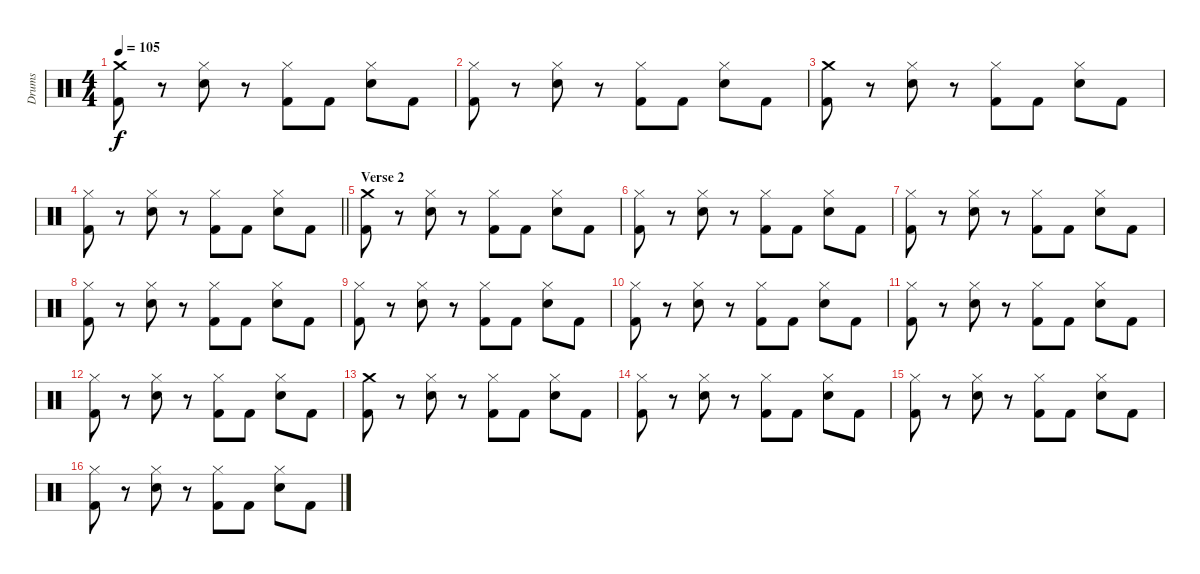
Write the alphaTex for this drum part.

\track ("Drums" "Drums") {instrument percussion}
\staff {score}
\articulation defaults
\ts (4 4)
\tempo 105
\clef neutral
\ks c
("Crash medium (hit)" "Kick (hit) 2").8{dy f} r.8 ("Hi-Hat (closed)" "Snare (hit) 2").8 r.8 ("Hi-Hat (closed)" "Kick (hit) 2").8 "Kick (hit) 2".8 ("Hi-Hat (closed)" "Snare (hit) 2").8 "Kick (hit) 2".8 |
("Hi-Hat (closed)" "Kick (hit) 2").8 r.8 ("Hi-Hat (closed)" "Snare (hit) 2").8 r.8 ("Hi-Hat (closed)" "Kick (hit) 2").8 "Kick (hit) 2".8 ("Hi-Hat (closed)" "Snare (hit) 2").8 "Kick (hit) 2".8 |
("Crash medium (hit)" "Kick (hit) 2").8 r.8 ("Hi-Hat (closed)" "Snare (hit) 2").8 r.8 ("Hi-Hat (closed)" "Kick (hit) 2").8 "Kick (hit) 2".8 ("Hi-Hat (closed)" "Snare (hit) 2").8 "Kick (hit) 2".8 |
\barLineRight lightlight
("Hi-Hat (closed)" "Kick (hit) 2").8 r.8 ("Hi-Hat (closed)" "Snare (hit) 2").8 r.8 ("Hi-Hat (closed)" "Kick (hit) 2").8 "Kick (hit) 2".8 ("Hi-Hat (closed)" "Snare (hit) 2").8 "Kick (hit) 2".8 |
\section ("" "Verse 2")
("Crash medium (hit)" "Kick (hit) 2").8 r.8 ("Hi-Hat (closed)" "Snare (hit) 2").8 r.8 ("Hi-Hat (closed)" "Kick (hit) 2").8 "Kick (hit) 2".8 ("Hi-Hat (closed)" "Snare (hit) 2").8 "Kick (hit) 2".8 |
("Hi-Hat (closed)" "Kick (hit) 2").8 r.8 ("Hi-Hat (closed)" "Snare (hit) 2").8 r.8 ("Hi-Hat (closed)" "Kick (hit) 2").8 "Kick (hit) 2".8 ("Hi-Hat (closed)" "Snare (hit) 2").8 "Kick (hit) 2".8 |
("Hi-Hat (closed)" "Kick (hit) 2").8 r.8 ("Hi-Hat (closed)" "Snare (hit) 2").8 r.8 ("Hi-Hat (closed)" "Kick (hit) 2").8 "Kick (hit) 2".8 ("Hi-Hat (closed)" "Snare (hit) 2").8 "Kick (hit) 2".8 |
("Hi-Hat (closed)" "Kick (hit) 2").8 r.8 ("Hi-Hat (closed)" "Snare (hit) 2").8 r.8 ("Hi-Hat (closed)" "Kick (hit) 2").8 "Kick (hit) 2".8 ("Hi-Hat (closed)" "Snare (hit) 2").8 "Kick (hit) 2".8 |
("Hi-Hat (closed)" "Kick (hit) 2").8 r.8 ("Hi-Hat (closed)" "Snare (hit) 2").8 r.8 ("Hi-Hat (closed)" "Kick (hit) 2").8 "Kick (hit) 2".8 ("Hi-Hat (closed)" "Snare (hit) 2").8 "Kick (hit) 2".8 |
("Hi-Hat (closed)" "Kick (hit) 2").8 r.8 ("Hi-Hat (closed)" "Snare (hit) 2").8 r.8 ("Hi-Hat (closed)" "Kick (hit) 2").8 "Kick (hit) 2".8 ("Hi-Hat (closed)" "Snare (hit) 2").8 "Kick (hit) 2".8 |
("Hi-Hat (closed)" "Kick (hit) 2").8 r.8 ("Hi-Hat (closed)" "Snare (hit) 2").8 r.8 ("Hi-Hat (closed)" "Kick (hit) 2").8 "Kick (hit) 2".8 ("Hi-Hat (closed)" "Snare (hit) 2").8 "Kick (hit) 2".8 |
("Hi-Hat (closed)" "Kick (hit) 2").8 r.8 ("Hi-Hat (closed)" "Snare (hit) 2").8 r.8 ("Hi-Hat (closed)" "Kick (hit) 2").8 "Kick (hit) 2".8 ("Hi-Hat (closed)" "Snare (hit) 2").8 "Kick (hit) 2".8 |
("Crash medium (hit)" "Kick (hit) 2").8 r.8 ("Hi-Hat (closed)" "Snare (hit) 2").8 r.8 ("Hi-Hat (closed)" "Kick (hit) 2").8 "Kick (hit) 2".8 ("Hi-Hat (closed)" "Snare (hit) 2").8 "Kick (hit) 2".8 |
("Hi-Hat (closed)" "Kick (hit) 2").8 r.8 ("Hi-Hat (closed)" "Snare (hit) 2").8 r.8 ("Hi-Hat (closed)" "Kick (hit) 2").8 "Kick (hit) 2".8 ("Hi-Hat (closed)" "Snare (hit) 2").8 "Kick (hit) 2".8 |
("Hi-Hat (closed)" "Kick (hit) 2").8 r.8 ("Hi-Hat (closed)" "Snare (hit) 2").8 r.8 ("Hi-Hat (closed)" "Kick (hit) 2").8 "Kick (hit) 2".8 ("Hi-Hat (closed)" "Snare (hit) 2").8 "Kick (hit) 2".8 |
("Hi-Hat (closed)" "Kick (hit) 2").8 r.8 ("Hi-Hat (closed)" "Snare (hit) 2").8 r.8 ("Hi-Hat (closed)" "Kick (hit) 2").8 "Kick (hit) 2".8 ("Hi-Hat (closed)" "Snare (hit) 2").8 "Kick (hit) 2".8
